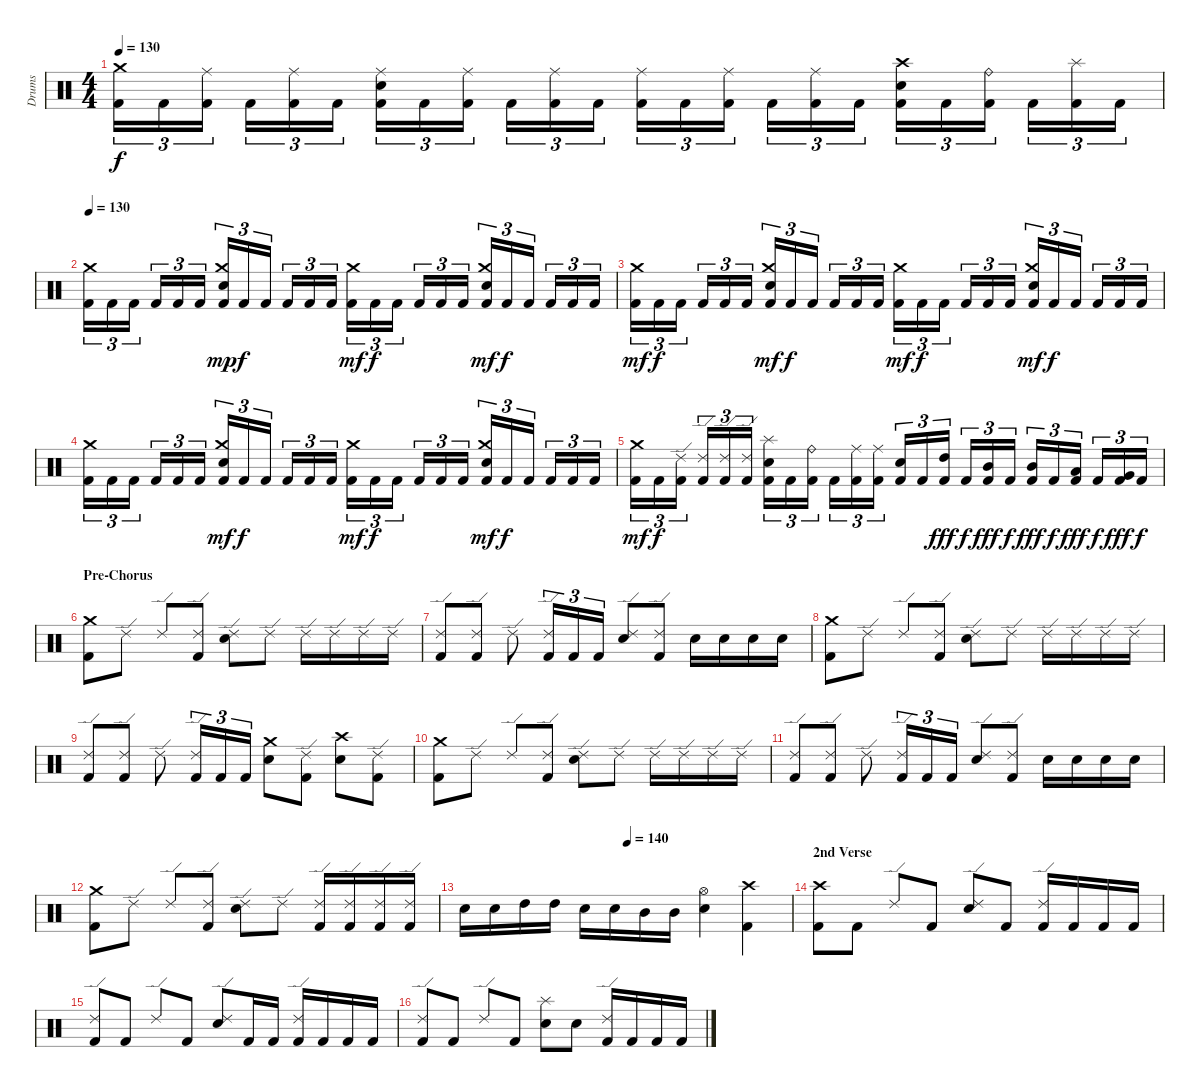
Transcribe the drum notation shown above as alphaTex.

\track ("Drums" "Drums") {instrument percussion}
\staff {score}
\articulation defaults
\ts (4 4)
\tempo 130
\clef neutral
\ks c
("Kick (hit) 2" "Crash medium (hit)").16{tu (3 2) dy f} "Kick (hit) 2".16{tu (3 2)} ("Kick (hit) 2" "Ride (middle)").16{tu (3 2)} "Kick (hit) 2".16{tu (3 2)} ("Kick (hit) 2" "Ride (middle)").16{tu (3 2)} "Kick (hit) 2".16{tu (3 2)} ("Kick (hit) 2" "Electric Snare (hit)" "Ride (middle)").16{tu (3 2)} "Kick (hit) 2".16{tu (3 2)} ("Kick (hit) 2" "Ride (middle)").16{tu (3 2)} "Kick (hit) 2".16{tu (3 2)} ("Kick (hit) 2" "Ride (middle)").16{tu (3 2)} "Kick (hit) 2".16{tu (3 2)} ("Kick (hit) 2" "Ride (middle)").16{tu (3 2)} "Kick (hit) 2".16{tu (3 2)} ("Kick (hit) 2" "Ride (middle)").16{tu (3 2)} "Kick (hit) 2".16{tu (3 2)} ("Kick (hit) 2" "Ride (middle)").16{tu (3 2)} "Kick (hit) 2".16{tu (3 2)} ("Kick (hit) 2" "Electric Snare (hit)" "Crash high (hit)").16{tu (3 2)} "Kick (hit) 2".16{tu (3 2)} ("Kick (hit) 2" "Ride (bell)").16{tu (3 2)} "Kick (hit) 2".16{tu (3 2)} ("Kick (hit) 2" "Splash (hit)").16{tu (3 2)} "Kick (hit) 2".16{tu (3 2)} |
\tempo 130
("Kick (hit) 2" "Crash medium (hit)").16{tu (3 2)} "Kick (hit) 2".16{tu (3 2)} "Kick (hit) 2".16{tu (3 2)} "Kick (hit) 2".16{tu (3 2)} "Kick (hit) 2".16{tu (3 2)} "Kick (hit) 2".16{tu (3 2)} ("Kick (hit) 2" "Electric Snare (hit)" "Crash medium (hit)").16{tu (3 2) dy mp} "Kick (hit) 2".16{tu (3 2) dy f} "Kick (hit) 2".16{tu (3 2)} "Kick (hit) 2".16{tu (3 2)} "Kick (hit) 2".16{tu (3 2)} "Kick (hit) 2".16{tu (3 2)} ("Kick (hit) 2" "Crash medium (hit)").16{tu (3 2) dy mf} "Kick (hit) 2".16{tu (3 2) dy f} "Kick (hit) 2".16{tu (3 2)} "Kick (hit) 2".16{tu (3 2)} "Kick (hit) 2".16{tu (3 2)} "Kick (hit) 2".16{tu (3 2)} ("Kick (hit) 2" "Electric Snare (hit)" "Crash medium (hit)").16{tu (3 2) dy mf} "Kick (hit) 2".16{tu (3 2) dy f} "Kick (hit) 2".16{tu (3 2)} "Kick (hit) 2".16{tu (3 2)} "Kick (hit) 2".16{tu (3 2)} "Kick (hit) 2".16{tu (3 2)} |
("Kick (hit) 2" "Crash medium (hit)").16{tu (3 2) dy mf} "Kick (hit) 2".16{tu (3 2) dy f} "Kick (hit) 2".16{tu (3 2)} "Kick (hit) 2".16{tu (3 2)} "Kick (hit) 2".16{tu (3 2)} "Kick (hit) 2".16{tu (3 2)} ("Kick (hit) 2" "Electric Snare (hit)" "Crash medium (hit)").16{tu (3 2) dy mf} "Kick (hit) 2".16{tu (3 2) dy f} "Kick (hit) 2".16{tu (3 2)} "Kick (hit) 2".16{tu (3 2)} "Kick (hit) 2".16{tu (3 2)} "Kick (hit) 2".16{tu (3 2)} ("Kick (hit) 2" "Crash medium (hit)").16{tu (3 2) dy mf} "Kick (hit) 2".16{tu (3 2) dy f} "Kick (hit) 2".16{tu (3 2)} "Kick (hit) 2".16{tu (3 2)} "Kick (hit) 2".16{tu (3 2)} "Kick (hit) 2".16{tu (3 2)} ("Kick (hit) 2" "Electric Snare (hit)" "Crash medium (hit)").16{tu (3 2) dy mf} "Kick (hit) 2".16{tu (3 2) dy f} "Kick (hit) 2".16{tu (3 2)} "Kick (hit) 2".16{tu (3 2)} "Kick (hit) 2".16{tu (3 2)} "Kick (hit) 2".16{tu (3 2)} |
("Kick (hit) 2" "Crash medium (hit)").16{tu (3 2)} "Kick (hit) 2".16{tu (3 2)} "Kick (hit) 2".16{tu (3 2)} "Kick (hit) 2".16{tu (3 2)} "Kick (hit) 2".16{tu (3 2)} "Kick (hit) 2".16{tu (3 2)} ("Kick (hit) 2" "Electric Snare (hit)" "Crash medium (hit)").16{tu (3 2) dy mf} "Kick (hit) 2".16{tu (3 2) dy f} "Kick (hit) 2".16{tu (3 2)} "Kick (hit) 2".16{tu (3 2)} "Kick (hit) 2".16{tu (3 2)} "Kick (hit) 2".16{tu (3 2)} ("Kick (hit) 2" "Crash medium (hit)").16{tu (3 2) dy mf} "Kick (hit) 2".16{tu (3 2) dy f} "Kick (hit) 2".16{tu (3 2)} "Kick (hit) 2".16{tu (3 2)} "Kick (hit) 2".16{tu (3 2)} "Kick (hit) 2".16{tu (3 2)} ("Kick (hit) 2" "Electric Snare (hit)" "Crash medium (hit)").16{tu (3 2) dy mf} "Kick (hit) 2".16{tu (3 2) dy f} "Kick (hit) 2".16{tu (3 2)} "Kick (hit) 2".16{tu (3 2)} "Kick (hit) 2".16{tu (3 2)} "Kick (hit) 2".16{tu (3 2)} |
("Kick (hit) 2" "Crash medium (hit)").16{tu (3 2) dy mf} "Kick (hit) 2".16{tu (3 2) dy f} ("Kick (hit) 2" "Ride (edge) 2").16{tu (3 2)} ("Kick (hit) 2" "Ride (edge) 2").16{tu (3 2)} ("Kick (hit) 2" "Ride (edge) 2").16{tu (3 2)} ("Kick (hit) 2" "Ride (edge) 2").16{tu (3 2)} ("Kick (hit) 2" "Electric Snare (hit)" "Splash (hit)").16{tu (3 2)} "Kick (hit) 2".16{tu (3 2)} ("Kick (hit) 2" "Ride (bell)").16{tu (3 2)} "Kick (hit) 2".16{tu (3 2)} ("Kick (hit) 2" "Ride (middle)").16{tu (3 2)} ("Kick (hit) 2" "Ride (middle)").16{tu (3 2)} ("Kick (hit) 2" "Electric Snare (hit)").16{tu (3 2)} "Kick (hit) 2".16{tu (3 2)} ("Kick (hit) 2" "High Tom (hit)").16{tu (3 2) dy fff} "Kick (hit) 2".16{tu (3 2) dy f} ("Kick (hit) 2" "Mid Tom (hit)").16{tu (3 2) dy fff} "Kick (hit) 2".16{tu (3 2) dy f} ("Kick (hit) 2" "Mid Tom (hit)").16{tu (3 2) dy fff} "Kick (hit) 2".16{tu (3 2) dy f} ("Kick (hit) 2" "Low Tom (hit)").16{tu (3 2) dy fff} "Kick (hit) 2".16{tu (3 2) dy f} ("Kick (hit) 2" "Very Low Tom (hit)").16{tu (3 2) dy fff} "Kick (hit) 2".16{tu (3 2) dy f} |
\section ("" "Pre-Chorus")
("Kick (hit) 2" "Crash medium (hit)").8 "Ride (edge) 2".8 "Ride (edge) 2".8 ("Kick (hit) 2" "Ride (edge) 2").8 ("Electric Snare (hit)" "Ride (edge) 2").8 "Ride (edge) 2".8 "Ride (edge) 2".16 "Ride (edge) 2".16 "Ride (edge) 2".16 "Ride (edge) 2".16 |
("Kick (hit) 2" "Ride (edge) 2").8 ("Kick (hit) 2" "Ride (edge) 2").8 "Ride (edge) 2".8 ("Kick (hit) 2" "Ride (edge) 2").16{tu (3 2)} "Kick (hit) 2".16{tu (3 2)} "Kick (hit) 2".16{tu (3 2)} ("Electric Snare (hit)" "Ride (edge) 2").8 ("Kick (hit) 2" "Ride (edge) 2").8 "Electric Snare (hit)".16 "Electric Snare (hit)".16 "Electric Snare (hit)".16 "Electric Snare (hit)".16 |
("Kick (hit) 2" "Crash medium (hit)").8 "Ride (edge) 2".8 "Ride (edge) 2".8 ("Kick (hit) 2" "Ride (edge) 2").8 ("Electric Snare (hit)" "Ride (edge) 2").8 "Ride (edge) 2".8 "Ride (edge) 2".16 "Ride (edge) 2".16 "Ride (edge) 2".16 "Ride (edge) 2".16 |
("Kick (hit) 2" "Ride (edge) 2").8 ("Kick (hit) 2" "Ride (edge) 2").8 "Ride (edge) 2".8 ("Kick (hit) 2" "Ride (edge) 2").16{tu (3 2)} "Kick (hit) 2".16{tu (3 2)} "Kick (hit) 2".16{tu (3 2)} ("Electric Snare (hit)" "Crash medium (hit)").8 ("Kick (hit) 2" "Ride (edge) 2").8 ("Electric Snare (hit)" "Crash high (hit)").8 ("Kick (hit) 2" "Ride (edge) 2").8 |
("Kick (hit) 2" "Crash medium (hit)").8 "Ride (edge) 2".8 "Ride (edge) 2".8 ("Kick (hit) 2" "Ride (edge) 2").8 ("Electric Snare (hit)" "Ride (edge) 2").8 "Ride (edge) 2".8 "Ride (edge) 2".16 "Ride (edge) 2".16 "Ride (edge) 2".16 "Ride (edge) 2".16 |
("Kick (hit) 2" "Ride (edge) 2").8 ("Kick (hit) 2" "Ride (edge) 2").8 "Ride (edge) 2".8 ("Kick (hit) 2" "Ride (edge) 2").16{tu (3 2)} "Kick (hit) 2".16{tu (3 2)} "Kick (hit) 2".16{tu (3 2)} ("Electric Snare (hit)" "Ride (edge) 2").8 ("Kick (hit) 2" "Ride (edge) 2").8 "Electric Snare (hit)".16 "Electric Snare (hit)".16 "Electric Snare (hit)".16 "Electric Snare (hit)".16 |
("Kick (hit) 2" "Crash medium (hit)").8 "Ride (edge) 2".8 "Ride (edge) 2".8 ("Kick (hit) 2" "Ride (edge) 2").8 ("Electric Snare (hit)" "Ride (edge) 2").8 "Ride (edge) 2".8 ("Kick (hit) 2" "Ride (edge) 2").16 ("Kick (hit) 2" "Ride (edge) 2").16 ("Kick (hit) 2" "Ride (edge) 2").16 ("Kick (hit) 2" "Ride (edge) 2").16 |
\tempo (140 0.5)
"Electric Snare (hit)".16 "Electric Snare (hit)".16 "High Tom (hit)".16 "High Tom (hit)".16 "Electric Snare (hit)".16 "Electric Snare (hit)".16 "Mid Tom (hit)".16 "Mid Tom (hit)".16 ("Electric Snare (hit)" "Hi-Hat (open)").4 ("Kick (hit) 2" "Crash high (hit)").4 |
\section ("" "2nd Verse")
("Kick (hit) 2" "Crash high (hit)").8 "Kick (hit) 2".8 "Ride (edge) 2".8 "Kick (hit) 2".8 ("Electric Snare (hit)" "Ride (edge) 2").8 "Kick (hit) 2".8 ("Kick (hit) 2" "Ride (edge) 2").16 "Kick (hit) 2".16 "Kick (hit) 2".16 "Kick (hit) 2".16 |
("Kick (hit) 2" "Ride (edge) 2").8 "Kick (hit) 2".8 "Ride (edge) 2".8 "Kick (hit) 2".8 ("Electric Snare (hit)" "Ride (edge) 2").8 "Kick (hit) 2".16 "Kick (hit) 2".16 ("Kick (hit) 2" "Ride (edge) 2").16 "Kick (hit) 2".16 "Kick (hit) 2".16 "Kick (hit) 2".16 |
("Kick (hit) 2" "Ride (edge) 2").8 "Kick (hit) 2".8 "Ride (edge) 2".8 "Kick (hit) 2".8 ("Electric Snare (hit)" "Splash (hit)").8 "Electric Snare (hit)".8 ("Kick (hit) 2" "Ride (edge) 2").16 "Kick (hit) 2".16 "Kick (hit) 2".16 "Kick (hit) 2".16
